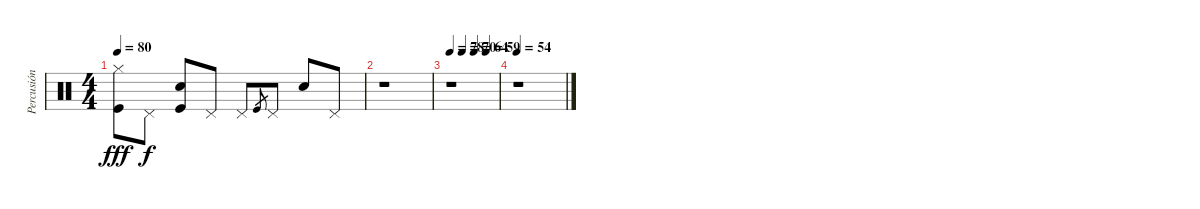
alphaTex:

\track ("Percusión (Percussion)" "Percusión ") {instrument percussion}
\staff {score}
\articulation defaults
\ts (4 4)
\tempo 80
\clef neutral
\ks c
("Kick (hit)" "Hi-Hat (closed)").8{dy fff} "Pedal Hi-Hat (hit)".8{dy f} ("Snare (hit) 2" "Kick (hit)").8 "Pedal Hi-Hat (hit)".8 "Pedal Hi-Hat (hit)".8 "Kick (hit)".8{gr} "Pedal Hi-Hat (hit)".8 "Snare (hit) 2".8 "Pedal Hi-Hat (hit)".8 |
r.1 |
\tempo 78
\tempo (70 0.25)
\tempo (64 0.5)
\tempo (59 0.75)
r.1 |
\tempo 54
r.1
